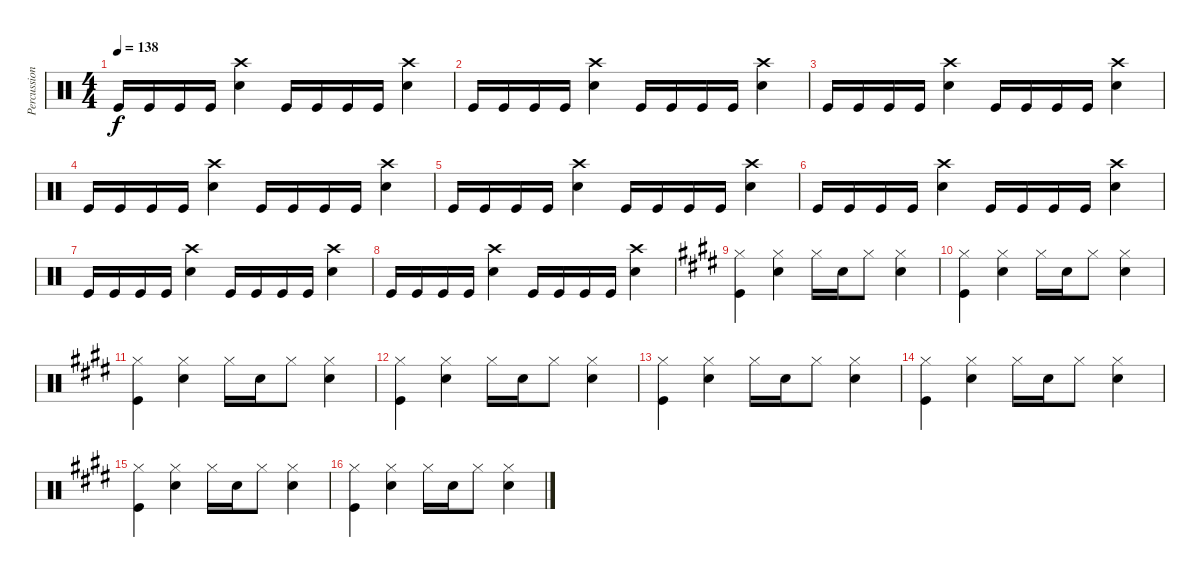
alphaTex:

\track ("Percussion" "Percussion") {instrument percussion}
\staff {score}
\articulation defaults
\ts (4 4)
\tempo 138
\clef neutral
\ks c "Kick (hit)".16{dy f} "Kick (hit)".16 "Kick (hit)".16 "Kick (hit)".16
("Crash high (hit)" "Snare (hit) 2").4 "Kick (hit)".16 "Kick (hit)".16 "Kick (hit)".16 "Kick (hit)".16 ("Crash high (hit)" "Snare (hit) 2").4 |
"Kick (hit)".16 "Kick (hit)".16 "Kick (hit)".16 "Kick (hit)".16 ("Crash high (hit)" "Snare (hit) 2").4 "Kick (hit)".16 "Kick (hit)".16 "Kick (hit)".16 "Kick (hit)".16 ("Crash high (hit)" "Snare (hit) 2").4 |
"Kick (hit)".16 "Kick (hit)".16 "Kick (hit)".16 "Kick (hit)".16 ("Crash high (hit)" "Snare (hit) 2").4 "Kick (hit)".16 "Kick (hit)".16 "Kick (hit)".16 "Kick (hit)".16 ("Crash high (hit)" "Snare (hit) 2").4 |
"Kick (hit)".16 "Kick (hit)".16 "Kick (hit)".16 "Kick (hit)".16 ("Crash high (hit)" "Snare (hit) 2").4 "Kick (hit)".16 "Kick (hit)".16 "Kick (hit)".16 "Kick (hit)".16 ("Crash high (hit)" "Snare (hit) 2").4 |
"Kick (hit)".16 "Kick (hit)".16 "Kick (hit)".16 "Kick (hit)".16 ("Crash high (hit)" "Snare (hit) 2").4 "Kick (hit)".16 "Kick (hit)".16 "Kick (hit)".16 "Kick (hit)".16 ("Crash high (hit)" "Snare (hit) 2").4 |
"Kick (hit)".16 "Kick (hit)".16 "Kick (hit)".16 "Kick (hit)".16 ("Crash high (hit)" "Snare (hit) 2").4 "Kick (hit)".16 "Kick (hit)".16 "Kick (hit)".16 "Kick (hit)".16 ("Crash high (hit)" "Snare (hit) 2").4 |
"Kick (hit)".16 "Kick (hit)".16 "Kick (hit)".16 "Kick (hit)".16 ("Crash high (hit)" "Snare (hit) 2").4 "Kick (hit)".16 "Kick (hit)".16 "Kick (hit)".16 "Kick (hit)".16 ("Crash high (hit)" "Snare (hit) 2").4 |
"Kick (hit)".16 "Kick (hit)".16 "Kick (hit)".16 "Kick (hit)".16 ("Crash high (hit)" "Snare (hit) 2").4 "Kick (hit)".16 "Kick (hit)".16 "Kick (hit)".16 "Kick (hit)".16 ("Crash high (hit)" "Snare (hit) 2").4 |
\ks c#minor
("Hi-Hat (closed)" "Kick (hit)").4 ("Hi-Hat (closed)" "Snare (hit) 2").4 "Hi-Hat (closed)".16 "Snare (hit) 2".16 "Hi-Hat (closed)".8 ("Hi-Hat (closed)" "Snare (hit) 2").4 |
("Hi-Hat (closed)" "Kick (hit)").4 ("Hi-Hat (closed)" "Snare (hit) 2").4 "Hi-Hat (closed)".16 "Snare (hit) 2".16 "Hi-Hat (closed)".8 ("Hi-Hat (closed)" "Snare (hit) 2").4 |
("Hi-Hat (closed)" "Kick (hit)").4 ("Hi-Hat (closed)" "Snare (hit) 2").4 "Hi-Hat (closed)".16 "Snare (hit) 2".16 "Hi-Hat (closed)".8 ("Hi-Hat (closed)" "Snare (hit) 2").4 |
("Hi-Hat (closed)" "Kick (hit)").4 ("Hi-Hat (closed)" "Snare (hit) 2").4 "Hi-Hat (closed)".16 "Snare (hit) 2".16 "Hi-Hat (closed)".8 ("Hi-Hat (closed)" "Snare (hit) 2").4 |
("Hi-Hat (closed)" "Kick (hit)").4 ("Hi-Hat (closed)" "Snare (hit) 2").4 "Hi-Hat (closed)".16 "Snare (hit) 2".16 "Hi-Hat (closed)".8 ("Hi-Hat (closed)" "Snare (hit) 2").4 |
("Hi-Hat (closed)" "Kick (hit)").4 ("Hi-Hat (closed)" "Snare (hit) 2").4 "Hi-Hat (closed)".16 "Snare (hit) 2".16 "Hi-Hat (closed)".8 ("Hi-Hat (closed)" "Snare (hit) 2").4 |
("Hi-Hat (closed)" "Kick (hit)").4 ("Hi-Hat (closed)" "Snare (hit) 2").4 "Hi-Hat (closed)".16 "Snare (hit) 2".16 "Hi-Hat (closed)".8 ("Hi-Hat (closed)" "Snare (hit) 2").4 |
("Hi-Hat (closed)" "Kick (hit)").4 ("Hi-Hat (closed)" "Snare (hit) 2").4 "Hi-Hat (closed)".16 "Snare (hit) 2".16 "Hi-Hat (closed)".8 ("Hi-Hat (closed)" "Snare (hit) 2").4
